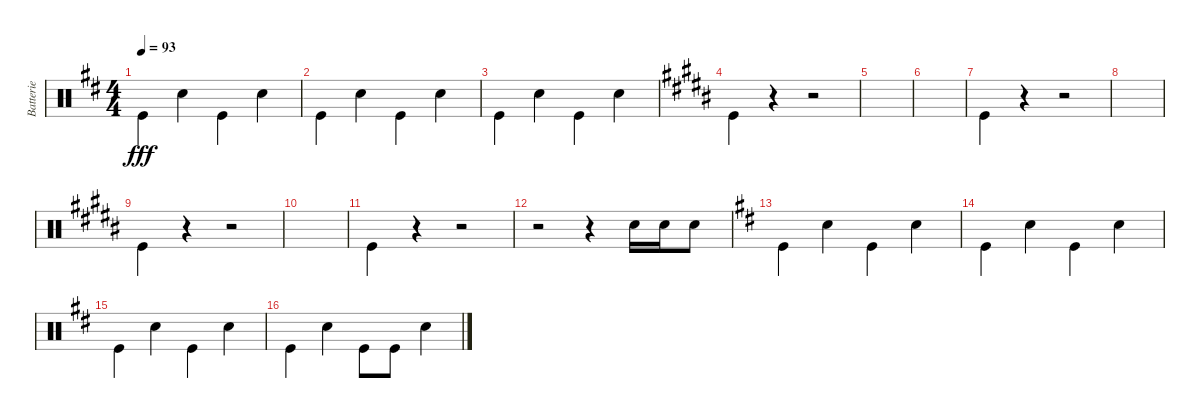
\track ("Batterie" "Batterie") {instrument percussion}
\staff {score}
\articulation defaults
\ts (4 4)
\tempo 93
\clef neutral
\ks d "Kick (hit)".4{dy fff beam Down} "Electric Snare (hit)".4 "Kick (hit)".4{beam Down} "Electric Snare (hit)".4
|
"Kick (hit)".4{beam Down} "Electric Snare (hit)".4 "Kick (hit)".4{beam Down} "Electric Snare (hit)".4 |
"Kick (hit)".4{beam Down} "Electric Snare (hit)".4 "Kick (hit)".4{beam Down} "Electric Snare (hit)".4 |
\ks b "Kick (hit)".4{beam Down}
r.4 r.2 |
|
|
"Kick (hit)".4{beam Down} r.4 r.2 |
|
"Kick (hit)".4{beam Down} r.4 r.2 |
|
"Kick (hit)".4{beam Down} r.4 r.2 |
r.2 r.4 "Snare (hit) 2".16{beam Down} "Snare (hit) 2".16{beam Down} "Snare (hit) 2".8{beam Down} |
\ks d "Kick (hit)".4{beam Down} "Snare (hit) 2".4{beam Down} "Kick (hit)".4{beam Down} "Snare (hit) 2".4{beam Down}
|
"Kick (hit)".4{beam Down} "Snare (hit) 2".4{beam Down} "Kick (hit)".4{beam Down} "Snare (hit) 2".4{beam Down} |
"Kick (hit)".4{beam Down} "Snare (hit) 2".4{beam Down} "Kick (hit)".4{beam Down} "Snare (hit) 2".4{beam Down} |
"Kick (hit)".4{beam Down} "Snare (hit) 2".4{beam Down} "Kick (hit)".8{beam Down} "Kick (hit)".8{beam Down} "Snare (hit) 2".4{beam Down}
